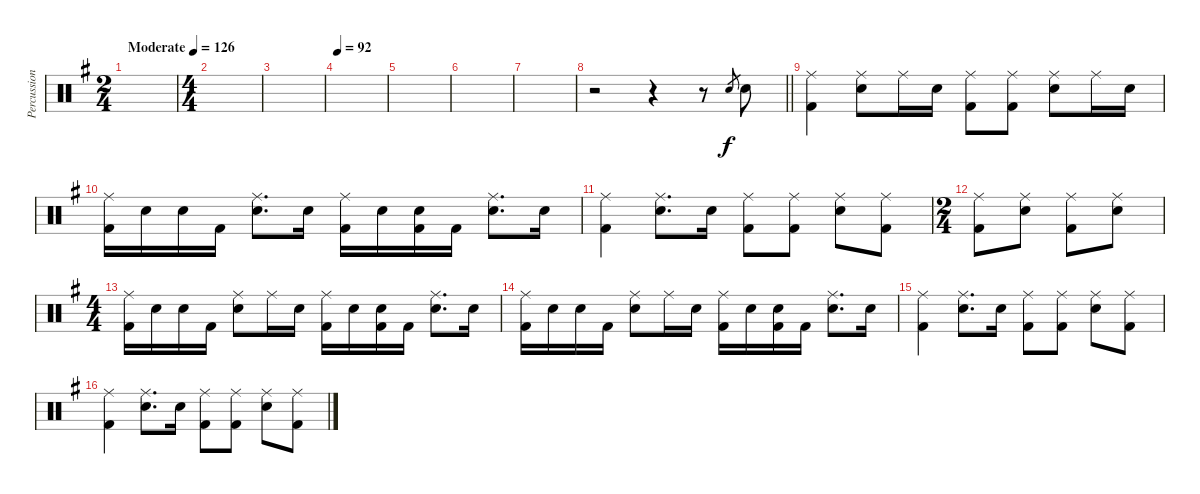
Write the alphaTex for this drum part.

\track ("Percussion" "Percussion") {instrument percussion}
\staff {score}
\articulation defaults
\ts (2 4)
\tempo (126 "Moderate")
\clef neutral
\ks g
|
\ts (4 4)
|
|
\tempo 92
|
|
|
|
\barLineRight lightlight
r.2 r.4 r.8 "Snare (hit) 2".8{gr} "Snare (hit) 2".8 |
("Ride (middle)" "Kick (hit) 2").4 ("Ride (middle)" "Snare (hit) 2").8 "Ride (middle)".16 "Snare (hit) 2".16 ("Ride (middle)" "Kick (hit) 2").8 ("Ride (middle)" "Kick (hit) 2").8 ("Ride (middle)" "Snare (hit) 2").8 "Ride (middle)".16 "Snare (hit) 2".16 |
("Ride (middle)" "Kick (hit) 2").16 "Snare (hit) 2".16 "Snare (hit) 2".16 "Kick (hit) 2".16 ("Ride (middle)" "Snare (hit) 2").8{d} "Snare (hit) 2".16 ("Ride (middle)" "Kick (hit) 2").16 "Snare (hit) 2".16 ("Snare (hit) 2" "Kick (hit) 2").16 "Kick (hit) 2".16 ("Ride (middle)" "Snare (hit) 2").8{d} "Snare (hit) 2".16 |
("Ride (middle)" "Kick (hit) 2").4 ("Ride (middle)" "Snare (hit) 2").8{d} "Snare (hit) 2".16 ("Ride (middle)" "Kick (hit) 2").8 ("Ride (middle)" "Kick (hit) 2").8 ("Ride (middle)" "Snare (hit) 2").8 ("Ride (middle)" "Kick (hit) 2").8 |
\ts (2 4)
("Ride (middle)" "Kick (hit) 2").8 ("Ride (middle)" "Snare (hit) 2").8 ("Ride (middle)" "Kick (hit) 2").8 ("Ride (middle)" "Snare (hit) 2").8 |
\ts (4 4)
("Ride (middle)" "Kick (hit) 2").16 "Snare (hit) 2".16 "Snare (hit) 2".16 "Kick (hit) 2".16 ("Ride (middle)" "Snare (hit) 2").8 "Ride (middle)".16 "Snare (hit) 2".16 ("Ride (middle)" "Kick (hit) 2").16 "Snare (hit) 2".16 ("Snare (hit) 2" "Kick (hit) 2").16 "Kick (hit) 2".16 ("Ride (middle)" "Snare (hit) 2").8{d} "Snare (hit) 2".16 |
("Ride (middle)" "Kick (hit) 2").16 "Snare (hit) 2".16 "Snare (hit) 2".16 "Kick (hit) 2".16 ("Ride (middle)" "Snare (hit) 2").8 "Ride (middle)".16 "Snare (hit) 2".16 ("Ride (middle)" "Kick (hit) 2").16 "Snare (hit) 2".16 ("Snare (hit) 2" "Kick (hit) 2").16 "Kick (hit) 2".16 ("Ride (middle)" "Snare (hit) 2").8{d} "Snare (hit) 2".16 |
("Ride (middle)" "Kick (hit) 2").4 ("Ride (middle)" "Snare (hit) 2").8{d} "Snare (hit) 2".16 ("Ride (middle)" "Kick (hit) 2").8 ("Ride (middle)" "Kick (hit) 2").8 ("Ride (middle)" "Snare (hit) 2").8 ("Ride (middle)" "Kick (hit) 2").8 |
("Ride (middle)" "Kick (hit) 2").4 ("Ride (middle)" "Snare (hit) 2").8{d} "Snare (hit) 2".16 ("Ride (middle)" "Kick (hit) 2").8 ("Ride (middle)" "Kick (hit) 2").8 ("Ride (middle)" "Snare (hit) 2").8 ("Ride (middle)" "Kick (hit) 2").8
